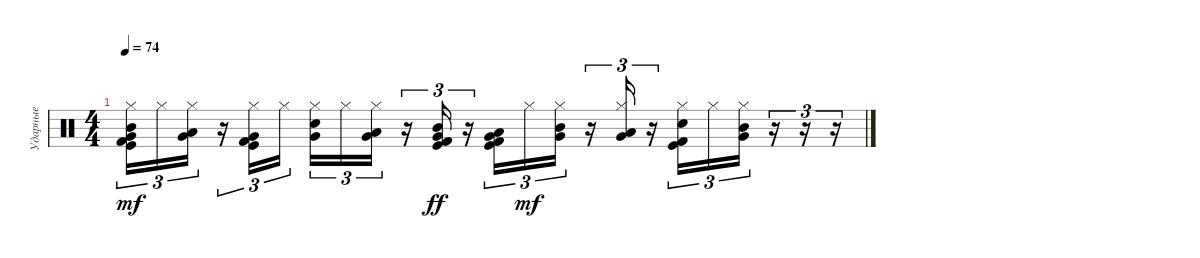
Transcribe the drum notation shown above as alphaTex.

\track ("Ударные" "Ударные") {instrument percussion}
\staff {score}
\articulation defaults
\ts (4 4)
\tempo 74
\clef neutral
\ks c
("Kick (hit) 2" "Very Low Tom (hit)" "Kick (hit)" "Mid Tom (hit)" "Hi-Hat (closed)").16{tu (3 2) dy mf} "Hi-Hat (closed)".16{tu (3 2)} ("Very Low Tom (hit)" "Low Tom (hit)" "Hi-Hat (closed)").16{tu (3 2)} r.16{tu (3 2)} ("Very Low Tom (hit)" "Kick (hit)" "Kick (hit) 2" "Hi-Hat (closed)").16{tu (3 2)} "Hi-Hat (closed)".16{tu (3 2)} ("Electric Snare (hit)" "Very Low Tom (hit)" "Hi-Hat (closed)").16{tu (3 2)} "Hi-Hat (closed)".16{tu (3 2)} ("Very Low Tom (hit)" "Low Tom (hit)" "Hi-Hat (closed)").16{tu (3 2)} r.16{tu (3 2)} ("Kick (hit) 2" "Very Low Tom (hit)" "Kick (hit)" "Mid Tom (hit)").16{tu (3 2) dy ff} r.16{tu (3 2)} ("Kick (hit) 2" "Very Low Tom (hit)" "Kick (hit)" "Low Tom (hit)").16{tu (3 2)} "Hi-Hat (closed)".16{tu (3 2) dy mf} ("Very Low Tom (hit)" "Mid Tom (hit)" "Hi-Hat (closed)").16{tu (3 2)} r.16{tu (3 2)} ("Very Low Tom (hit)" "Low Tom (hit)" "Hi-Hat (closed)").16{tu (3 2)} r.16{tu (3 2)} ("Electric Snare (hit)" "Kick (hit) 2" "Kick (hit)" "Hi-Hat (closed)").16{tu (3 2)} "Hi-Hat (closed)".16{tu (3 2)} ("Very Low Tom (hit)" "Mid Tom (hit)" "Hi-Hat (closed)").16{tu (3 2)} r.16{tu (3 2)} r.16{tu (3 2)} r.16{tu (3 2)}
